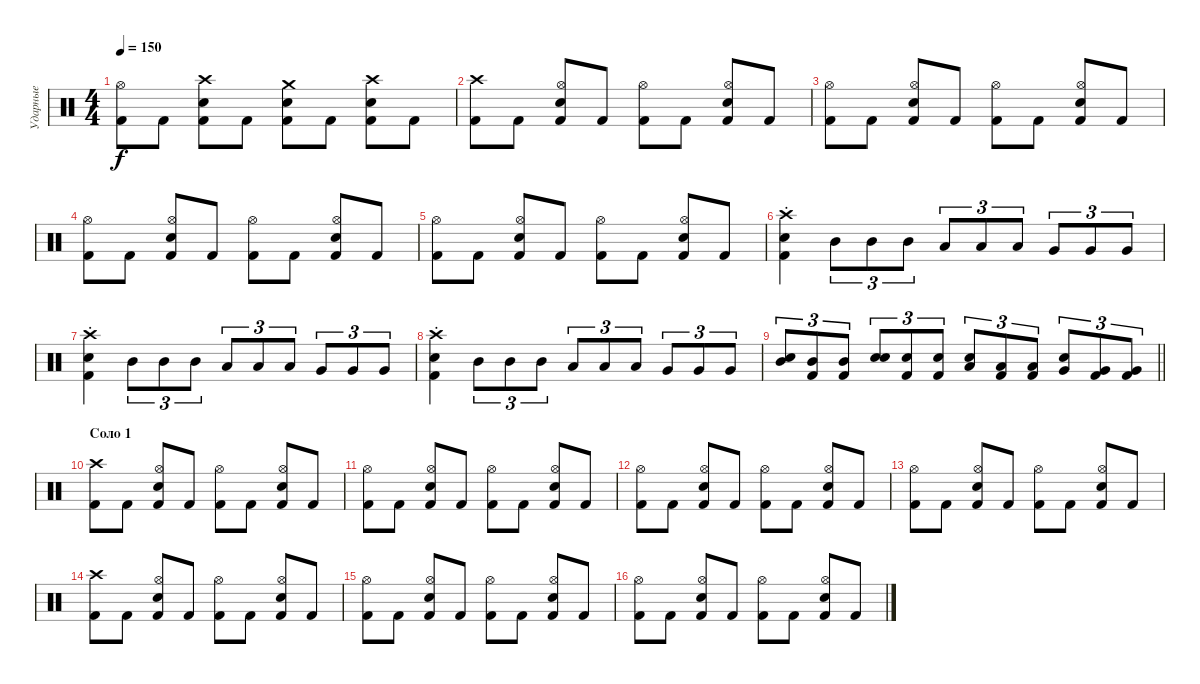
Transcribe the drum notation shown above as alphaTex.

\track ("Ударные" "Ударные") {instrument percussion}
\staff {score}
\articulation defaults
\ts (4 4)
\tempo 150
\clef neutral
\ks c
("Kick (hit) 2" "Hi-Hat (open)").8{dy f} "Kick (hit) 2".8 ("Snare (hit) 2" "Kick (hit) 2" "Crash high (hit)").8 "Kick (hit) 2".8 ("Kick (hit) 2" "Snare (hit) 2" "Crash medium (hit)").8 "Kick (hit) 2".8 ("Snare (hit) 2" "Kick (hit) 2" "Crash high (hit)").8 "Kick (hit) 2".8 |
("Kick (hit) 2" "Crash high (hit)").8 "Kick (hit) 2".8 ("Snare (hit) 2" "Kick (hit) 2" "Hi-Hat (open)").8 "Kick (hit) 2".8 ("Kick (hit) 2" "Hi-Hat (open)").8 "Kick (hit) 2".8 ("Snare (hit) 2" "Kick (hit) 2" "Hi-Hat (open)").8 "Kick (hit) 2".8 |
("Kick (hit) 2" "Hi-Hat (open)").8 "Kick (hit) 2".8 ("Snare (hit) 2" "Kick (hit) 2" "Hi-Hat (open)").8 "Kick (hit) 2".8 ("Kick (hit) 2" "Hi-Hat (open)").8 "Kick (hit) 2".8 ("Snare (hit) 2" "Kick (hit) 2" "Hi-Hat (open)").8 "Kick (hit) 2".8 |
("Kick (hit) 2" "Hi-Hat (open)").8 "Kick (hit) 2".8 ("Snare (hit) 2" "Kick (hit) 2" "Hi-Hat (open)").8 "Kick (hit) 2".8 ("Kick (hit) 2" "Hi-Hat (open)").8 "Kick (hit) 2".8 ("Snare (hit) 2" "Kick (hit) 2" "Hi-Hat (open)").8 "Kick (hit) 2".8 |
("Kick (hit) 2" "Hi-Hat (open)").8 "Kick (hit) 2".8 ("Snare (hit) 2" "Kick (hit) 2" "Hi-Hat (open)").8 "Kick (hit) 2".8 ("Kick (hit) 2" "Hi-Hat (open)").8 "Kick (hit) 2".8 ("Snare (hit) 2" "Kick (hit) 2" "Hi-Hat (open)").8 "Kick (hit) 2".8 |
("Kick (hit) 2"{st} "Snare (hit) 2"{st} "Crash high (hit)"{st}).4 "Mid Tom (hit)".8{tu (3 2)} "Mid Tom (hit)".8{tu (3 2)} "Mid Tom (hit)".8{tu (3 2)} "Low Tom (hit)".8{tu (3 2)} "Low Tom (hit)".8{tu (3 2)} "Low Tom (hit)".8{tu (3 2)} "Very Low Tom (hit)".8{tu (3 2)} "Very Low Tom (hit)".8{tu (3 2)} "Very Low Tom (hit)".8{tu (3 2)} |
("Kick (hit) 2"{st} "Snare (hit) 2"{st} "Crash high (hit)"{st}).4 "Mid Tom (hit)".8{tu (3 2)} "Mid Tom (hit)".8{tu (3 2)} "Mid Tom (hit)".8{tu (3 2)} "Low Tom (hit)".8{tu (3 2)} "Low Tom (hit)".8{tu (3 2)} "Low Tom (hit)".8{tu (3 2)} "Very Low Tom (hit)".8{tu (3 2)} "Very Low Tom (hit)".8{tu (3 2)} "Very Low Tom (hit)".8{tu (3 2)} |
("Kick (hit) 2"{st} "Snare (hit) 2"{st} "Crash high (hit)"{st}).4 "Mid Tom (hit)".8{tu (3 2)} "Mid Tom (hit)".8{tu (3 2)} "Mid Tom (hit)".8{tu (3 2)} "Low Tom (hit)".8{tu (3 2)} "Low Tom (hit)".8{tu (3 2)} "Low Tom (hit)".8{tu (3 2)} "Very Low Tom (hit)".8{tu (3 2)} "Very Low Tom (hit)".8{tu (3 2)} "Very Low Tom (hit)".8{tu (3 2)} |
\barLineRight lightlight
("Mid Tom (hit)" "Snare (hit) 2").8{tu (3 2)} ("Mid Tom (hit)" "Kick (hit) 2").8{tu (3 2)} ("Mid Tom (hit)" "Kick (hit) 2").8{tu (3 2)} ("Electric Snare (hit)" "Snare (hit) 2").8{tu (3 2)} ("Electric Snare (hit)" "Kick (hit) 2").8{tu (3 2)} ("Electric Snare (hit)" "Kick (hit) 2").8{tu (3 2)} ("Low Tom (hit)" "Snare (hit) 2").8{tu (3 2)} ("Low Tom (hit)" "Kick (hit) 2").8{tu (3 2)} ("Low Tom (hit)" "Kick (hit) 2").8{tu (3 2)} ("Very Low Tom (hit)" "Snare (hit) 2").8{tu (3 2)} ("Very Low Tom (hit)" "Kick (hit) 2").8{tu (3 2)} ("Very Low Tom (hit)" "Kick (hit) 2").8{tu (3 2)} |
\section ("" "Соло 1")
("Kick (hit) 2" "Crash high (hit)").8 "Kick (hit) 2".8 ("Snare (hit) 2" "Kick (hit) 2" "Hi-Hat (open)").8 "Kick (hit) 2".8 ("Kick (hit) 2" "Hi-Hat (open)").8 "Kick (hit) 2".8 ("Snare (hit) 2" "Kick (hit) 2" "Hi-Hat (open)").8 "Kick (hit) 2".8 |
("Kick (hit) 2" "Hi-Hat (open)").8 "Kick (hit) 2".8 ("Snare (hit) 2" "Kick (hit) 2" "Hi-Hat (open)").8 "Kick (hit) 2".8 ("Kick (hit) 2" "Hi-Hat (open)").8 "Kick (hit) 2".8 ("Snare (hit) 2" "Kick (hit) 2" "Hi-Hat (open)").8 "Kick (hit) 2".8 |
("Kick (hit) 2" "Hi-Hat (open)").8 "Kick (hit) 2".8 ("Snare (hit) 2" "Kick (hit) 2" "Hi-Hat (open)").8 "Kick (hit) 2".8 ("Kick (hit) 2" "Hi-Hat (open)").8 "Kick (hit) 2".8 ("Snare (hit) 2" "Kick (hit) 2" "Hi-Hat (open)").8 "Kick (hit) 2".8 |
("Kick (hit) 2" "Hi-Hat (open)").8 "Kick (hit) 2".8 ("Snare (hit) 2" "Kick (hit) 2" "Hi-Hat (open)").8 "Kick (hit) 2".8 ("Kick (hit) 2" "Hi-Hat (open)").8 "Kick (hit) 2".8 ("Snare (hit) 2" "Kick (hit) 2" "Hi-Hat (open)").8 "Kick (hit) 2".8 |
("Kick (hit) 2" "Crash high (hit)").8 "Kick (hit) 2".8 ("Snare (hit) 2" "Kick (hit) 2" "Hi-Hat (open)").8 "Kick (hit) 2".8 ("Kick (hit) 2" "Hi-Hat (open)").8 "Kick (hit) 2".8 ("Snare (hit) 2" "Kick (hit) 2" "Hi-Hat (open)").8 "Kick (hit) 2".8 |
("Kick (hit) 2" "Hi-Hat (open)").8 "Kick (hit) 2".8 ("Snare (hit) 2" "Kick (hit) 2" "Hi-Hat (open)").8 "Kick (hit) 2".8 ("Kick (hit) 2" "Hi-Hat (open)").8 "Kick (hit) 2".8 ("Snare (hit) 2" "Kick (hit) 2" "Hi-Hat (open)").8 "Kick (hit) 2".8 |
("Kick (hit) 2" "Hi-Hat (open)").8 "Kick (hit) 2".8 ("Snare (hit) 2" "Kick (hit) 2" "Hi-Hat (open)").8 "Kick (hit) 2".8 ("Kick (hit) 2" "Hi-Hat (open)").8 "Kick (hit) 2".8 ("Snare (hit) 2" "Kick (hit) 2" "Hi-Hat (open)").8 "Kick (hit) 2".8
